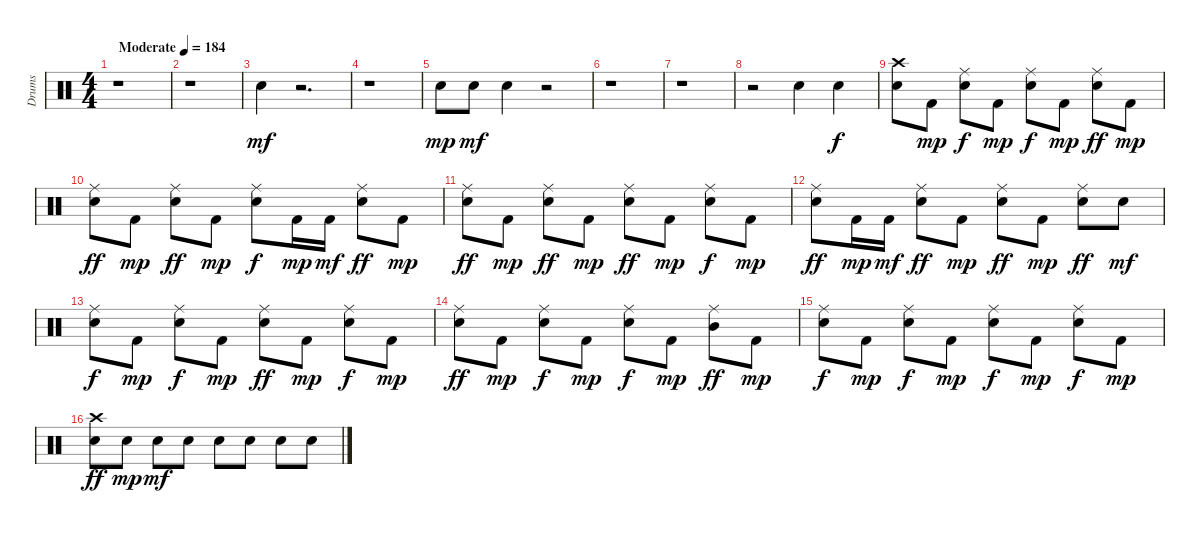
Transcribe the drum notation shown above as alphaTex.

\track ("Drums" "Drums") {instrument percussion}
\staff {score}
\articulation defaults
\ts (4 4)
\tempo (184 "Moderate")
\clef neutral
\ks c
r.1{dy mf} |
r.1 |
"Snare (hit) 2".4 r.2{d} |
r.1 |
"Snare (hit) 2".8{dy mp} "Snare (hit) 2".8{dy mf} "Snare (hit) 2".4 r.2 |
r.1 |
r.1 |
r.2 "Snare (hit) 2".4 "Snare (hit) 2".4{dy f} |
("Snare (hit) 2" "Crash high (hit)").8 "Kick (hit) 2".8{dy mp} ("Snare (hit) 2" "Ride (middle)").8{dy f} "Kick (hit) 2".8{dy mp} ("Snare (hit) 2" "Ride (middle)").8{dy f} "Kick (hit) 2".8{dy mp} ("Snare (hit) 2" "Ride (middle)").8{dy ff} "Kick (hit) 2".8{dy mp} |
("Snare (hit) 2" "Ride (middle)").8{dy ff} "Kick (hit) 2".8{dy mp} ("Snare (hit) 2" "Ride (middle)").8{dy ff} "Kick (hit) 2".8{dy mp} ("Snare (hit) 2" "Ride (middle)").8{dy f} "Kick (hit) 2".16{dy mp} "Kick (hit) 2".16{dy mf} ("Snare (hit) 2" "Ride (middle)").8{dy ff} "Kick (hit) 2".8{dy mp} |
("Snare (hit) 2" "Ride (middle)").8{dy ff} "Kick (hit) 2".8{dy mp} ("Snare (hit) 2" "Ride (middle)").8{dy ff} "Kick (hit) 2".8{dy mp} ("Snare (hit) 2" "Ride (middle)").8{dy ff} "Kick (hit) 2".8{dy mp} ("Snare (hit) 2" "Ride (middle)").8{dy f} "Kick (hit) 2".8{dy mp} |
("Snare (hit) 2" "Ride (middle)").8{dy ff} "Kick (hit) 2".16{dy mp} "Kick (hit) 2".16{dy mf} ("Snare (hit) 2" "Ride (middle)").8{dy ff} "Kick (hit) 2".8{dy mp} ("Snare (hit) 2" "Ride (middle)").8{dy ff} "Kick (hit) 2".8{dy mp} ("Snare (hit) 2" "Ride (middle)").8{dy ff} "Snare (hit) 2".8{dy mf} |
("Snare (hit) 2" "Ride (middle)").8{dy f} "Kick (hit) 2".8{dy mp} ("Snare (hit) 2" "Ride (middle)").8{dy f} "Kick (hit) 2".8{dy mp} ("Snare (hit) 2" "Ride (middle)").8{dy ff} "Kick (hit) 2".8{dy mp} ("Snare (hit) 2" "Ride (middle)").8{dy f} "Kick (hit) 2".8{dy mp} |
("Snare (hit) 2" "Ride (middle)").8{dy ff} "Kick (hit) 2".8{dy mp} ("Snare (hit) 2" "Ride (middle)").8{dy f} "Kick (hit) 2".8{dy mp} ("Snare (hit) 2" "Ride (middle)").8{dy f} "Kick (hit) 2".8{dy mp} ("Mid Tom (hit)" "Ride (middle)").8{dy ff} "Kick (hit) 2".8{dy mp} |
("Snare (hit) 2" "Ride (middle)").8{dy f} "Kick (hit) 2".8{dy mp} ("Snare (hit) 2" "Ride (middle)").8{dy f} "Kick (hit) 2".8{dy mp} ("Snare (hit) 2" "Ride (middle)").8{dy f} "Kick (hit) 2".8{dy mp} ("Snare (hit) 2" "Ride (middle)").8{dy f} "Kick (hit) 2".8{dy mp} |
("Snare (hit) 2" "Crash high (hit)").8{dy ff} "Snare (hit) 2".8{dy mp} "Snare (hit) 2".8{dy mf} "Snare (hit) 2".8 "Snare (hit) 2".8 "Snare (hit) 2".8 "Snare (hit) 2".8 "Snare (hit) 2".8
